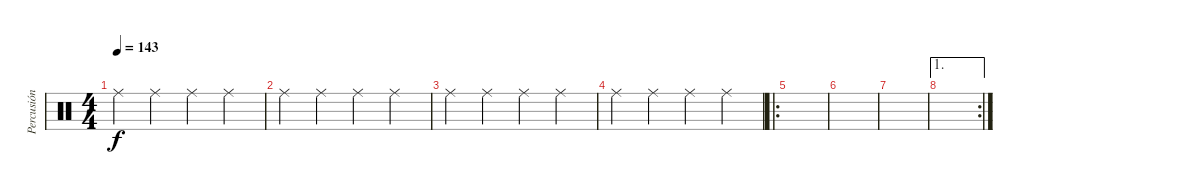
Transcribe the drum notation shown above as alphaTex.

\track ("Percusión" "Percusión") {instrument percussion}
\staff {score}
\articulation defaults
\ts (4 4)
\tempo 143
\clef neutral
\ks c "Ride (middle)".4{dy f} "Ride (middle)".4 "Ride (middle)".4 "Ride (middle)".4
|
"Ride (middle)".4 "Ride (middle)".4 "Ride (middle)".4 "Ride (middle)".4 |
"Ride (middle)".4 "Ride (middle)".4 "Ride (middle)".4 "Ride (middle)".4 |
"Ride (middle)".4 "Ride (middle)".4 "Ride (middle)".4 "Ride (middle)".4 |
\ro
|
|
|
\ae 1
\rc 2
